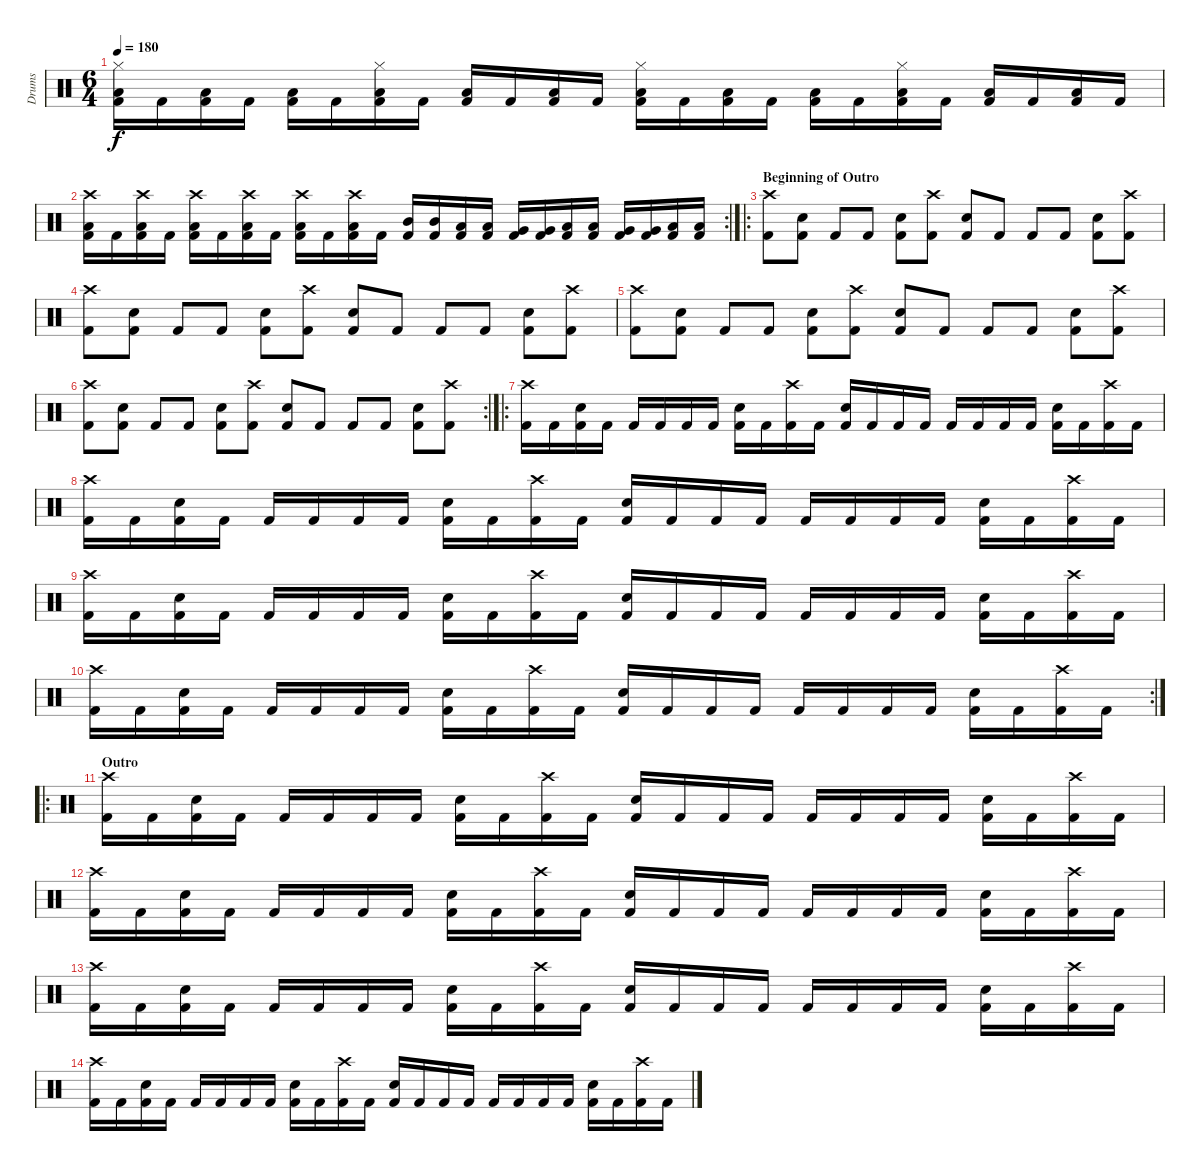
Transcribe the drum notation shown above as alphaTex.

\track ("Drums" "Drums") {instrument percussion}
\staff {score}
\articulation defaults
\ts (6 4)
\tempo 180
\clef neutral
\ks c
("Hi-Hat (closed)" "Low Floor Tom (hit)" "Kick (hit) 2").16{dy f} "Kick (hit) 2".16 ("Low Floor Tom (hit)" "Kick (hit) 2").16 "Kick (hit) 2".16 ("Low Floor Tom (hit)" "Kick (hit) 2").16 "Kick (hit) 2".16 ("Hi-Hat (closed)" "Low Floor Tom (hit)" "Kick (hit) 2").16 "Kick (hit) 2".16 ("Low Floor Tom (hit)" "Kick (hit) 2").16 "Kick (hit) 2".16 ("Low Floor Tom (hit)" "Kick (hit) 2").16 "Kick (hit) 2".16 ("Hi-Hat (closed)" "Low Floor Tom (hit)" "Kick (hit) 2").16 "Kick (hit) 2".16 ("Low Floor Tom (hit)" "Kick (hit) 2").16 "Kick (hit) 2".16 ("Low Floor Tom (hit)" "Kick (hit) 2").16 "Kick (hit) 2".16 ("Hi-Hat (closed)" "Low Floor Tom (hit)" "Kick (hit) 2").16 "Kick (hit) 2".16 ("Low Floor Tom (hit)" "Kick (hit) 2").16 "Kick (hit) 2".16 ("Low Floor Tom (hit)" "Kick (hit) 2").16 "Kick (hit) 2".16 |
\rc 2
("Crash high (hit)" "Low Floor Tom (hit)" "Kick (hit) 2").16 "Kick (hit) 2".16 ("Crash high (hit)" "Low Floor Tom (hit)" "Kick (hit) 2").16 "Kick (hit) 2".16 ("Crash high (hit)" "Low Floor Tom (hit)" "Kick (hit) 2").16 "Kick (hit) 2".16 ("Crash high (hit)" "Low Floor Tom (hit)" "Kick (hit) 2").16 "Kick (hit) 2".16 ("Crash high (hit)" "Low Floor Tom (hit)" "Kick (hit) 2").16 "Kick (hit) 2".16 ("Crash high (hit)" "Low Floor Tom (hit)" "Kick (hit) 2").16 "Kick (hit) 2".16 ("Mid Tom (hit)" "Kick (hit) 2").16 ("Mid Tom (hit)" "Kick (hit) 2").16 ("Low Tom (hit)" "Kick (hit) 2").16 ("Low Tom (hit)" "Kick (hit) 2").16 ("Very Low Tom (hit)" "Kick (hit) 2").16 ("Very Low Tom (hit)" "Kick (hit) 2").16 ("Low Tom (hit)" "Kick (hit) 2").16 ("Low Tom (hit)" "Kick (hit) 2").16 ("Very Low Tom (hit)" "Kick (hit) 2").16 ("Very Low Tom (hit)" "Kick (hit) 2").16 ("Low Floor Tom (hit)" "Kick (hit) 2").16 ("Low Floor Tom (hit)" "Kick (hit) 2").16 |
\ro
\section ("" "Beginning of Outro")
("Crash high (hit)" "Kick (hit) 2").8 ("Snare (hit) 2" "Kick (hit) 2").8 "Kick (hit) 2".8 "Kick (hit) 2".8 ("Snare (hit) 2" "Kick (hit) 2").8 ("Crash high (hit)" "Kick (hit) 2").8 ("Snare (hit) 2" "Kick (hit) 2").8 "Kick (hit) 2".8 "Kick (hit) 2".8 "Kick (hit) 2".8 ("Snare (hit) 2" "Kick (hit) 2").8 ("Crash high (hit)" "Kick (hit) 2").8 |
("Crash high (hit)" "Kick (hit) 2").8 ("Snare (hit) 2" "Kick (hit) 2").8 "Kick (hit) 2".8 "Kick (hit) 2".8 ("Snare (hit) 2" "Kick (hit) 2").8 ("Crash high (hit)" "Kick (hit) 2").8 ("Snare (hit) 2" "Kick (hit) 2").8 "Kick (hit) 2".8 "Kick (hit) 2".8 "Kick (hit) 2".8 ("Snare (hit) 2" "Kick (hit) 2").8 ("Crash high (hit)" "Kick (hit) 2").8 |
("Crash high (hit)" "Kick (hit) 2").8 ("Snare (hit) 2" "Kick (hit) 2").8 "Kick (hit) 2".8 "Kick (hit) 2".8 ("Snare (hit) 2" "Kick (hit) 2").8 ("Crash high (hit)" "Kick (hit) 2").8 ("Snare (hit) 2" "Kick (hit) 2").8 "Kick (hit) 2".8 "Kick (hit) 2".8 "Kick (hit) 2".8 ("Snare (hit) 2" "Kick (hit) 2").8 ("Crash high (hit)" "Kick (hit) 2").8 |
\rc 2
("Crash high (hit)" "Kick (hit) 2").8 ("Snare (hit) 2" "Kick (hit) 2").8 "Kick (hit) 2".8 "Kick (hit) 2".8 ("Snare (hit) 2" "Kick (hit) 2").8 ("Crash high (hit)" "Kick (hit) 2").8 ("Snare (hit) 2" "Kick (hit) 2").8 "Kick (hit) 2".8 "Kick (hit) 2".8 "Kick (hit) 2".8 ("Snare (hit) 2" "Kick (hit) 2").8 ("Crash high (hit)" "Kick (hit) 2").8 |
\ro
("Crash high (hit)" "Kick (hit) 2").16 "Kick (hit) 2".16 ("Snare (hit) 2" "Kick (hit) 2").16 "Kick (hit) 2".16 "Kick (hit) 2".16 "Kick (hit) 2".16 "Kick (hit) 2".16 "Kick (hit) 2".16 ("Snare (hit) 2" "Kick (hit) 2").16 "Kick (hit) 2".16 ("Crash high (hit)" "Kick (hit) 2").16 "Kick (hit) 2".16 ("Snare (hit) 2" "Kick (hit) 2").16 "Kick (hit) 2".16 "Kick (hit) 2".16 "Kick (hit) 2".16 "Kick (hit) 2".16 "Kick (hit) 2".16 "Kick (hit) 2".16 "Kick (hit) 2".16 ("Snare (hit) 2" "Kick (hit) 2").16 "Kick (hit) 2".16 ("Crash high (hit)" "Kick (hit) 2").16 "Kick (hit) 2".16 |
("Crash high (hit)" "Kick (hit) 2").16 "Kick (hit) 2".16 ("Snare (hit) 2" "Kick (hit) 2").16 "Kick (hit) 2".16 "Kick (hit) 2".16 "Kick (hit) 2".16 "Kick (hit) 2".16 "Kick (hit) 2".16 ("Snare (hit) 2" "Kick (hit) 2").16 "Kick (hit) 2".16 ("Crash high (hit)" "Kick (hit) 2").16 "Kick (hit) 2".16 ("Snare (hit) 2" "Kick (hit) 2").16 "Kick (hit) 2".16 "Kick (hit) 2".16 "Kick (hit) 2".16 "Kick (hit) 2".16 "Kick (hit) 2".16 "Kick (hit) 2".16 "Kick (hit) 2".16 ("Snare (hit) 2" "Kick (hit) 2").16 "Kick (hit) 2".16 ("Crash high (hit)" "Kick (hit) 2").16 "Kick (hit) 2".16 |
("Crash high (hit)" "Kick (hit) 2").16 "Kick (hit) 2".16 ("Snare (hit) 2" "Kick (hit) 2").16 "Kick (hit) 2".16 "Kick (hit) 2".16 "Kick (hit) 2".16 "Kick (hit) 2".16 "Kick (hit) 2".16 ("Snare (hit) 2" "Kick (hit) 2").16 "Kick (hit) 2".16 ("Crash high (hit)" "Kick (hit) 2").16 "Kick (hit) 2".16 ("Snare (hit) 2" "Kick (hit) 2").16 "Kick (hit) 2".16 "Kick (hit) 2".16 "Kick (hit) 2".16 "Kick (hit) 2".16 "Kick (hit) 2".16 "Kick (hit) 2".16 "Kick (hit) 2".16 ("Snare (hit) 2" "Kick (hit) 2").16 "Kick (hit) 2".16 ("Crash high (hit)" "Kick (hit) 2").16 "Kick (hit) 2".16 |
\rc 2
("Crash high (hit)" "Kick (hit) 2").16 "Kick (hit) 2".16 ("Snare (hit) 2" "Kick (hit) 2").16 "Kick (hit) 2".16 "Kick (hit) 2".16 "Kick (hit) 2".16 "Kick (hit) 2".16 "Kick (hit) 2".16 ("Snare (hit) 2" "Kick (hit) 2").16 "Kick (hit) 2".16 ("Crash high (hit)" "Kick (hit) 2").16 "Kick (hit) 2".16 ("Snare (hit) 2" "Kick (hit) 2").16 "Kick (hit) 2".16 "Kick (hit) 2".16 "Kick (hit) 2".16 "Kick (hit) 2".16 "Kick (hit) 2".16 "Kick (hit) 2".16 "Kick (hit) 2".16 ("Snare (hit) 2" "Kick (hit) 2").16 "Kick (hit) 2".16 ("Crash high (hit)" "Kick (hit) 2").16 "Kick (hit) 2".16 |
\ro
\section ("" "Outro")
("Crash high (hit)" "Kick (hit) 2").16 "Kick (hit) 2".16 ("Snare (hit) 2" "Kick (hit) 2").16 "Kick (hit) 2".16 "Kick (hit) 2".16 "Kick (hit) 2".16 "Kick (hit) 2".16 "Kick (hit) 2".16 ("Snare (hit) 2" "Kick (hit) 2").16 "Kick (hit) 2".16 ("Crash high (hit)" "Kick (hit) 2").16 "Kick (hit) 2".16 ("Snare (hit) 2" "Kick (hit) 2").16 "Kick (hit) 2".16 "Kick (hit) 2".16 "Kick (hit) 2".16 "Kick (hit) 2".16 "Kick (hit) 2".16 "Kick (hit) 2".16 "Kick (hit) 2".16 ("Snare (hit) 2" "Kick (hit) 2").16 "Kick (hit) 2".16 ("Crash high (hit)" "Kick (hit) 2").16 "Kick (hit) 2".16 |
("Crash high (hit)" "Kick (hit) 2").16 "Kick (hit) 2".16 ("Snare (hit) 2" "Kick (hit) 2").16 "Kick (hit) 2".16 "Kick (hit) 2".16 "Kick (hit) 2".16 "Kick (hit) 2".16 "Kick (hit) 2".16 ("Snare (hit) 2" "Kick (hit) 2").16 "Kick (hit) 2".16 ("Crash high (hit)" "Kick (hit) 2").16 "Kick (hit) 2".16 ("Snare (hit) 2" "Kick (hit) 2").16 "Kick (hit) 2".16 "Kick (hit) 2".16 "Kick (hit) 2".16 "Kick (hit) 2".16 "Kick (hit) 2".16 "Kick (hit) 2".16 "Kick (hit) 2".16 ("Snare (hit) 2" "Kick (hit) 2").16 "Kick (hit) 2".16 ("Crash high (hit)" "Kick (hit) 2").16 "Kick (hit) 2".16 |
("Crash high (hit)" "Kick (hit) 2").16 "Kick (hit) 2".16 ("Snare (hit) 2" "Kick (hit) 2").16 "Kick (hit) 2".16 "Kick (hit) 2".16 "Kick (hit) 2".16 "Kick (hit) 2".16 "Kick (hit) 2".16 ("Snare (hit) 2" "Kick (hit) 2").16 "Kick (hit) 2".16 ("Crash high (hit)" "Kick (hit) 2").16 "Kick (hit) 2".16 ("Snare (hit) 2" "Kick (hit) 2").16 "Kick (hit) 2".16 "Kick (hit) 2".16 "Kick (hit) 2".16 "Kick (hit) 2".16 "Kick (hit) 2".16 "Kick (hit) 2".16 "Kick (hit) 2".16 ("Snare (hit) 2" "Kick (hit) 2").16 "Kick (hit) 2".16 ("Crash high (hit)" "Kick (hit) 2").16 "Kick (hit) 2".16 |
("Crash high (hit)" "Kick (hit) 2").16 "Kick (hit) 2".16 ("Snare (hit) 2" "Kick (hit) 2").16 "Kick (hit) 2".16 "Kick (hit) 2".16 "Kick (hit) 2".16 "Kick (hit) 2".16 "Kick (hit) 2".16 ("Snare (hit) 2" "Kick (hit) 2").16 "Kick (hit) 2".16 ("Crash high (hit)" "Kick (hit) 2").16 "Kick (hit) 2".16 ("Snare (hit) 2" "Kick (hit) 2").16 "Kick (hit) 2".16 "Kick (hit) 2".16 "Kick (hit) 2".16 "Kick (hit) 2".16 "Kick (hit) 2".16 "Kick (hit) 2".16 "Kick (hit) 2".16 ("Snare (hit) 2" "Kick (hit) 2").16 "Kick (hit) 2".16 ("Crash high (hit)" "Kick (hit) 2").16 "Kick (hit) 2".16
